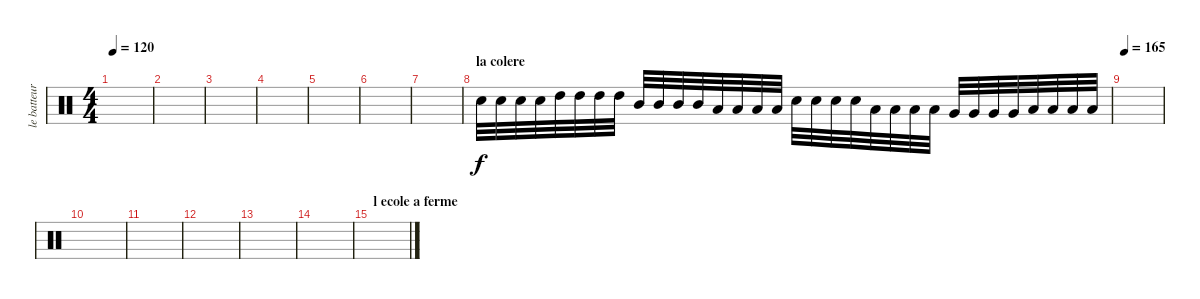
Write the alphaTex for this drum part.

\track ("le batteur" "le batteur") {instrument percussion}
\staff {score}
\articulation defaults
\ts (4 4)
\tempo 120
\clef neutral
\ks c
|
|
|
|
|
|
|
\section ("" "la colere")
"Snare (hit) 2".32 "Snare (hit) 2".32 "Snare (hit) 2".32 "Snare (hit) 2".32 "High Tom (hit)".32 "High Tom (hit)".32 "High Tom (hit)".32 "High Tom (hit)".32 "Mid Tom (hit)".32 "Mid Tom (hit)".32 "Mid Tom (hit)".32 "Mid Tom (hit)".32 "Low Tom (hit)".32 "Low Tom (hit)".32 "Low Tom (hit)".32 "Low Tom (hit)".32 "Snare (hit) 2".32 "Snare (hit) 2".32 "Snare (hit) 2".32 "Snare (hit) 2".32 "Low Tom (hit)".32 "Low Tom (hit)".32 "Low Tom (hit)".32 "Low Tom (hit)".32 "Very Low Tom (hit)".32 "Very Low Tom (hit)".32 "Very Low Tom (hit)".32 "Very Low Tom (hit)".32 "Low Floor Tom (hit)".32 "Low Floor Tom (hit)".32 "Low Floor Tom (hit)".32 "Low Floor Tom (hit)".32 |
\tempo 165
|
|
|
|
|
|
\section ("" "l ecole a ferme")
